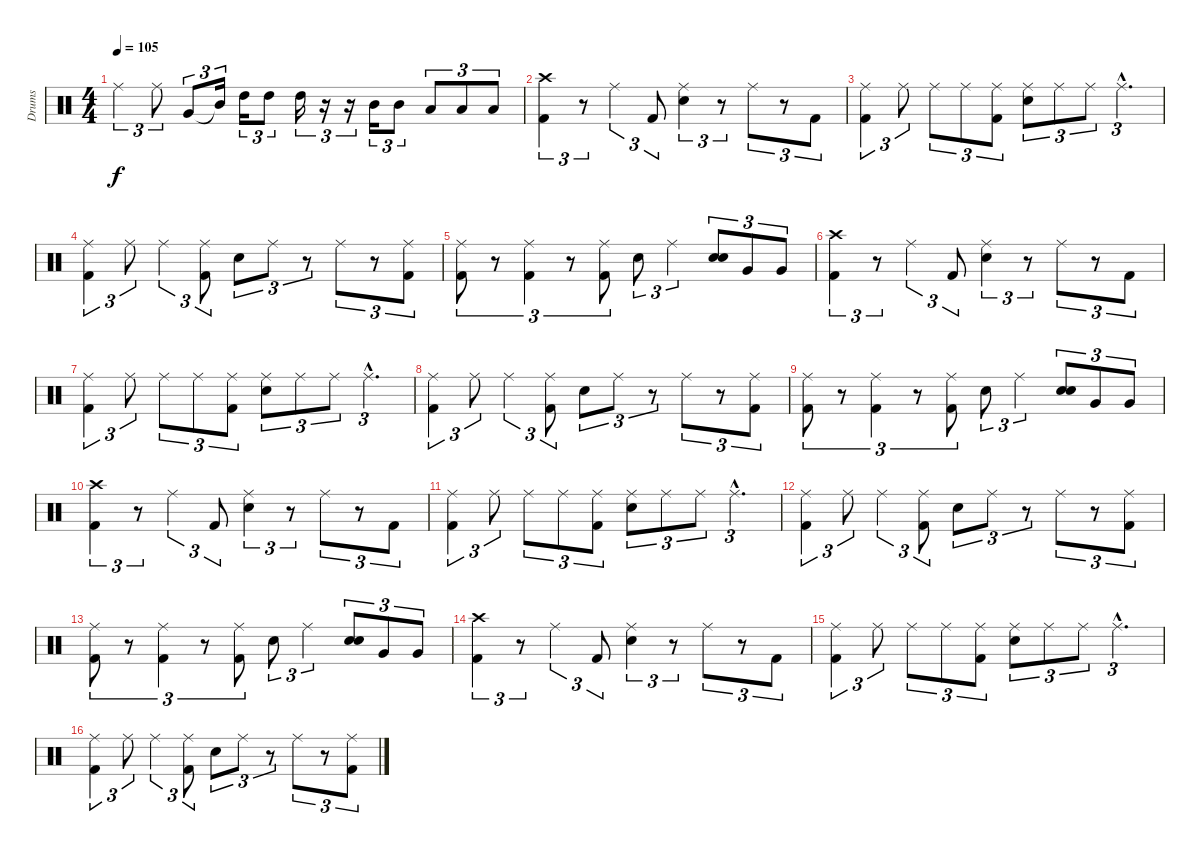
\track ("Drums" "Drums") {instrument percussion}
\staff {score}
\articulation defaults
\ts (4 4)
\tempo 105
\clef neutral
\ks c "Ride (middle)".4{tu (3 2) dy f} "Ride (middle)".8{tu (3 2)} "Very Low Tom (hit)".8{tu (3 2)} "Mid Tom (hit)"{t}.16{tu (3 2)} "High Tom (hit)".16{tu (3 2)} "High Tom (hit)".8{tu (3 2)} "High Tom (hit)".16{tu (3 2)}
r.16{tu (3 2)} r.16{tu (3 2)} "Mid Tom (hit)".16{tu (3 2)} "Mid Tom (hit)".8{tu (3 2)} "Low Tom (hit)".8{tu (3 2)} "Low Tom (hit)".8{tu (3 2)} "Low Tom (hit)".8{tu (3 2)} |
("Crash high (hit)" "Kick (hit) 2").4{tu (3 2)} r.8{tu (3 2)} "Ride (middle)".4{tu (3 2)} "Kick (hit) 2".8{tu (3 2)} ("Ride (middle)" "Snare (hit) 2").4{tu (3 2)} r.8{tu (3 2)} "Ride (middle)".8{tu (3 2)} r.8{tu (3 2)} "Kick (hit) 2".8{tu (3 2)} |
("Ride (middle)" "Kick (hit) 2").4{tu (3 2)} "Ride (middle)".8{tu (3 2)} "Ride (middle)".8{tu (3 2)} "Ride (middle)".8{tu (3 2)} ("Ride (middle)" "Kick (hit) 2").8{tu (3 2)} ("Ride (middle)" "Snare (hit) 2").8{tu (3 2)} "Ride (middle)".8{tu (3 2)} "Ride (middle)".8{tu (3 2)} "Ride (middle)"{hac}.4{d tu (3 2)} |
("Ride (middle)" "Kick (hit) 2").4{tu (3 2)} "Ride (middle)".8{tu (3 2)} "Ride (middle)".4{tu (3 2)} ("Ride (middle)" "Kick (hit) 2").8{tu (3 2)} "Snare (hit) 2".8{tu (3 2)} "Ride (middle)".8{tu (3 2)} r.8{tu (3 2)} "Ride (middle)".8{tu (3 2)} r.8{tu (3 2)} ("Ride (middle)" "Kick (hit) 2").8{tu (3 2)} |
("Ride (middle)" "Kick (hit) 2").8{tu (3 2)} r.8{tu (3 2)} ("Ride (middle)" "Kick (hit) 2").4{tu (3 2)} r.8{tu (3 2)} ("Ride (middle)" "Kick (hit) 2").8{tu (3 2)} "Snare (hit) 2".8{tu (3 2)} "Ride (middle)".4{tu (3 2)} ("Snare (hit) 2" "Snare (hit) 2").8{tu (3 2)} "Very Low Tom (hit)".8{tu (3 2)} "Very Low Tom (hit)".8{tu (3 2)} |
("Crash high (hit)" "Kick (hit) 2").4{tu (3 2)} r.8{tu (3 2)} "Ride (middle)".4{tu (3 2)} "Kick (hit) 2".8{tu (3 2)} ("Ride (middle)" "Snare (hit) 2").4{tu (3 2)} r.8{tu (3 2)} "Ride (middle)".8{tu (3 2)} r.8{tu (3 2)} "Kick (hit) 2".8{tu (3 2)} |
("Ride (middle)" "Kick (hit) 2").4{tu (3 2)} "Ride (middle)".8{tu (3 2)} "Ride (middle)".8{tu (3 2)} "Ride (middle)".8{tu (3 2)} ("Ride (middle)" "Kick (hit) 2").8{tu (3 2)} ("Ride (middle)" "Snare (hit) 2").8{tu (3 2)} "Ride (middle)".8{tu (3 2)} "Ride (middle)".8{tu (3 2)} "Ride (middle)"{hac}.4{d tu (3 2)} |
("Ride (middle)" "Kick (hit) 2").4{tu (3 2)} "Ride (middle)".8{tu (3 2)} "Ride (middle)".4{tu (3 2)} ("Ride (middle)" "Kick (hit) 2").8{tu (3 2)} "Snare (hit) 2".8{tu (3 2)} "Ride (middle)".8{tu (3 2)} r.8{tu (3 2)} "Ride (middle)".8{tu (3 2)} r.8{tu (3 2)} ("Ride (middle)" "Kick (hit) 2").8{tu (3 2)} |
("Ride (middle)" "Kick (hit) 2").8{tu (3 2)} r.8{tu (3 2)} ("Ride (middle)" "Kick (hit) 2").4{tu (3 2)} r.8{tu (3 2)} ("Ride (middle)" "Kick (hit) 2").8{tu (3 2)} "Snare (hit) 2".8{tu (3 2)} "Ride (middle)".4{tu (3 2)} ("Snare (hit) 2" "Snare (hit) 2").8{tu (3 2)} "Very Low Tom (hit)".8{tu (3 2)} "Very Low Tom (hit)".8{tu (3 2)} |
("Crash high (hit)" "Kick (hit) 2").4{tu (3 2)} r.8{tu (3 2)} "Ride (middle)".4{tu (3 2)} "Kick (hit) 2".8{tu (3 2)} ("Ride (middle)" "Snare (hit) 2").4{tu (3 2)} r.8{tu (3 2)} "Ride (middle)".8{tu (3 2)} r.8{tu (3 2)} "Kick (hit) 2".8{tu (3 2)} |
("Ride (middle)" "Kick (hit) 2").4{tu (3 2)} "Ride (middle)".8{tu (3 2)} "Ride (middle)".8{tu (3 2)} "Ride (middle)".8{tu (3 2)} ("Ride (middle)" "Kick (hit) 2").8{tu (3 2)} ("Ride (middle)" "Snare (hit) 2").8{tu (3 2)} "Ride (middle)".8{tu (3 2)} "Ride (middle)".8{tu (3 2)} "Ride (middle)"{hac}.4{d tu (3 2)} |
("Ride (middle)" "Kick (hit) 2").4{tu (3 2)} "Ride (middle)".8{tu (3 2)} "Ride (middle)".4{tu (3 2)} ("Ride (middle)" "Kick (hit) 2").8{tu (3 2)} "Snare (hit) 2".8{tu (3 2)} "Ride (middle)".8{tu (3 2)} r.8{tu (3 2)} "Ride (middle)".8{tu (3 2)} r.8{tu (3 2)} ("Ride (middle)" "Kick (hit) 2").8{tu (3 2)} |
("Ride (middle)" "Kick (hit) 2").8{tu (3 2)} r.8{tu (3 2)} ("Ride (middle)" "Kick (hit) 2").4{tu (3 2)} r.8{tu (3 2)} ("Ride (middle)" "Kick (hit) 2").8{tu (3 2)} "Snare (hit) 2".8{tu (3 2)} "Ride (middle)".4{tu (3 2)} ("Snare (hit) 2" "Snare (hit) 2").8{tu (3 2)} "Very Low Tom (hit)".8{tu (3 2)} "Very Low Tom (hit)".8{tu (3 2)} |
("Crash high (hit)" "Kick (hit) 2").4{tu (3 2)} r.8{tu (3 2)} "Ride (middle)".4{tu (3 2)} "Kick (hit) 2".8{tu (3 2)} ("Ride (middle)" "Snare (hit) 2").4{tu (3 2)} r.8{tu (3 2)} "Ride (middle)".8{tu (3 2)} r.8{tu (3 2)} "Kick (hit) 2".8{tu (3 2)} |
("Ride (middle)" "Kick (hit) 2").4{tu (3 2)} "Ride (middle)".8{tu (3 2)} "Ride (middle)".8{tu (3 2)} "Ride (middle)".8{tu (3 2)} ("Ride (middle)" "Kick (hit) 2").8{tu (3 2)} ("Ride (middle)" "Snare (hit) 2").8{tu (3 2)} "Ride (middle)".8{tu (3 2)} "Ride (middle)".8{tu (3 2)} "Ride (middle)"{hac}.4{d tu (3 2)} |
("Ride (middle)" "Kick (hit) 2").4{tu (3 2)} "Ride (middle)".8{tu (3 2)} "Ride (middle)".4{tu (3 2)} ("Ride (middle)" "Kick (hit) 2").8{tu (3 2)} "Snare (hit) 2".8{tu (3 2)} "Ride (middle)".8{tu (3 2)} r.8{tu (3 2)} "Ride (middle)".8{tu (3 2)} r.8{tu (3 2)} ("Ride (middle)" "Kick (hit) 2").8{tu (3 2)}
